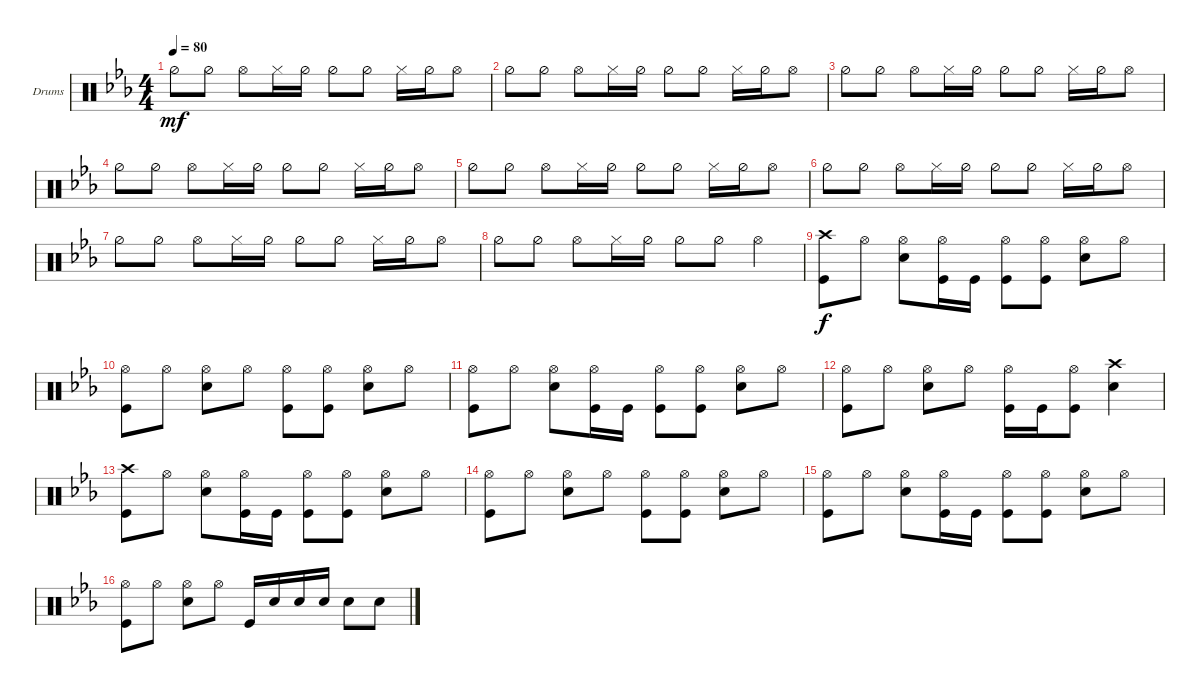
\defaultSystemsLayout 4
\bracketExtendMode groupsimilarinstruments
\firstSystemTrackNameOrientation horizontal
\otherSystemsTrackNameOrientation horizontal
\track ("Drumkit" "Drums") {instrument percussion}
\staff {score}
\articulation defaults
\ts (4 4)
\tempo 80
\clef neutral
\scale
0.311243
\ks cminor "Hi-Hat (half)".8{dy mf} "Hi-Hat (half)".8 "Hi-Hat (open)".8 "Hi-Hat (closed)".16 "Hi-Hat (half)".16 "Hi-Hat (half)".8 "Hi-Hat (half)".8 "Hi-Hat (closed)".16 "Hi-Hat (half)".16 "Hi-Hat (open)".8
|
\scale
0.229586 "Hi-Hat (half)".8 "Hi-Hat (half)".8 "Hi-Hat (open)".8 "Hi-Hat (closed)".16 "Hi-Hat (half)".16 "Hi-Hat (half)".8 "Hi-Hat (half)".8 "Hi-Hat (closed)".16 "Hi-Hat (half)".16 "Hi-Hat (open)".8 |
\scale
0.229586 "Hi-Hat (half)".8 "Hi-Hat (half)".8 "Hi-Hat (open)".8 "Hi-Hat (closed)".16 "Hi-Hat (half)".16 "Hi-Hat (half)".8 "Hi-Hat (half)".8 "Hi-Hat (closed)".16 "Hi-Hat (half)".16 "Hi-Hat (open)".8 |
\scale
0.229586 "Hi-Hat (half)".8 "Hi-Hat (half)".8 "Hi-Hat (open)".8 "Hi-Hat (closed)".16 "Hi-Hat (half)".16 "Hi-Hat (half)".8 "Hi-Hat (half)".8 "Hi-Hat (closed)".16 "Hi-Hat (half)".16 "Hi-Hat (open)".8 |
\scale
0.256275 "Hi-Hat (half)".8 "Hi-Hat (half)".8 "Hi-Hat (open)".8 "Hi-Hat (closed)".16 "Hi-Hat (half)".16 "Hi-Hat (half)".8 "Hi-Hat (half)".8 "Hi-Hat (closed)".16 "Hi-Hat (half)".16 "Hi-Hat (open)".8 |
\scale
0.256275 "Hi-Hat (half)".8 "Hi-Hat (half)".8 "Hi-Hat (open)".8 "Hi-Hat (closed)".16 "Hi-Hat (half)".16 "Hi-Hat (half)".8 "Hi-Hat (half)".8 "Hi-Hat (closed)".16 "Hi-Hat (half)".16 "Hi-Hat (open)".8 |
\scale
0.256275 "Hi-Hat (half)".8 "Hi-Hat (half)".8 "Hi-Hat (open)".8 "Hi-Hat (closed)".16 "Hi-Hat (half)".16 "Hi-Hat (half)".8 "Hi-Hat (half)".8 "Hi-Hat (closed)".16 "Hi-Hat (half)".16 "Hi-Hat (open)".8 |
\scale
0.231176 "Hi-Hat (half)".8 "Hi-Hat (half)".8 "Hi-Hat (open)".8 "Hi-Hat (closed)".16 "Hi-Hat (half)".16 "Hi-Hat (half)".8 "Hi-Hat (half)".8 "Hi-Hat (open)".4 |
\scale
0.262411 ("Crash high (hit)" "Kick (hit)").8{dy f} "Hi-Hat (open)".8 ("Hi-Hat (open)" "Snare (hit) 2").8 ("Hi-Hat (open)" "Kick (hit)").16 "Kick (hit)".16 ("Hi-Hat (open)" "Kick (hit)").8 ("Hi-Hat (open)" "Kick (hit)").8 ("Hi-Hat (open)" "Snare (hit) 2").8 "Hi-Hat (open)".8 |
\scale
0.22695 ("Kick (hit)" "Hi-Hat (open)").8 "Hi-Hat (open)".8 ("Hi-Hat (open)" "Snare (hit) 2").8 "Hi-Hat (open)".8 ("Hi-Hat (open)" "Kick (hit)").8 ("Hi-Hat (open)" "Kick (hit)").8 ("Hi-Hat (open)" "Snare (hit) 2").8 "Hi-Hat (open)".8 |
\scale
0.262411 ("Kick (hit)" "Hi-Hat (open)").8 "Hi-Hat (open)".8 ("Hi-Hat (open)" "Snare (hit) 2").8 ("Hi-Hat (open)" "Kick (hit)").16 "Kick (hit)".16 ("Hi-Hat (open)" "Kick (hit)").8 ("Hi-Hat (open)" "Kick (hit)").8 ("Hi-Hat (open)" "Snare (hit) 2").8 "Hi-Hat (open)".8 |
\scale
0.248227 ("Kick (hit)" "Hi-Hat (open)").8 "Hi-Hat (open)".8 ("Hi-Hat (open)" "Snare (hit) 2").8 "Hi-Hat (open)".8 ("Kick (hit)" "Hi-Hat (open)").16 "Kick (hit)".16 ("Hi-Hat (open)" "Kick (hit)").8 ("Snare (hit) 2" "Crash high (hit)").4 |
\scale
0.255525 ("Crash high (hit)" "Kick (hit)").8 "Hi-Hat (open)".8 ("Hi-Hat (open)" "Snare (hit) 2").8 ("Hi-Hat (open)" "Kick (hit)").16 "Kick (hit)".16 ("Hi-Hat (open)" "Kick (hit)").8 ("Hi-Hat (open)" "Kick (hit)").8 ("Hi-Hat (open)" "Snare (hit) 2").8 "Hi-Hat (open)".8 |
\scale
0.220994 ("Kick (hit)" "Hi-Hat (open)").8 "Hi-Hat (open)".8 ("Hi-Hat (open)" "Snare (hit) 2").8 "Hi-Hat (open)".8 ("Hi-Hat (open)" "Kick (hit)").8 ("Hi-Hat (open)" "Kick (hit)").8 ("Hi-Hat (open)" "Snare (hit) 2").8 "Hi-Hat (open)".8 |
\scale
0.255525 ("Kick (hit)" "Hi-Hat (open)").8 "Hi-Hat (open)".8 ("Hi-Hat (open)" "Snare (hit) 2").8 ("Hi-Hat (open)" "Kick (hit)").16 "Kick (hit)".16 ("Hi-Hat (open)" "Kick (hit)").8 ("Hi-Hat (open)" "Kick (hit)").8 ("Hi-Hat (open)" "Snare (hit) 2").8 "Hi-Hat (open)".8 |
\scale
0.267956 ("Kick (hit)" "Hi-Hat (open)").8 "Hi-Hat (open)".8 ("Hi-Hat (open)" "Snare (hit) 2").8 "Hi-Hat (open)".8 "Kick (hit)".16 "Snare (hit) 2".16 "Snare (hit) 2".16 "Snare (hit) 2".16 "Snare (hit) 2".8 "Snare (hit) 2".8
